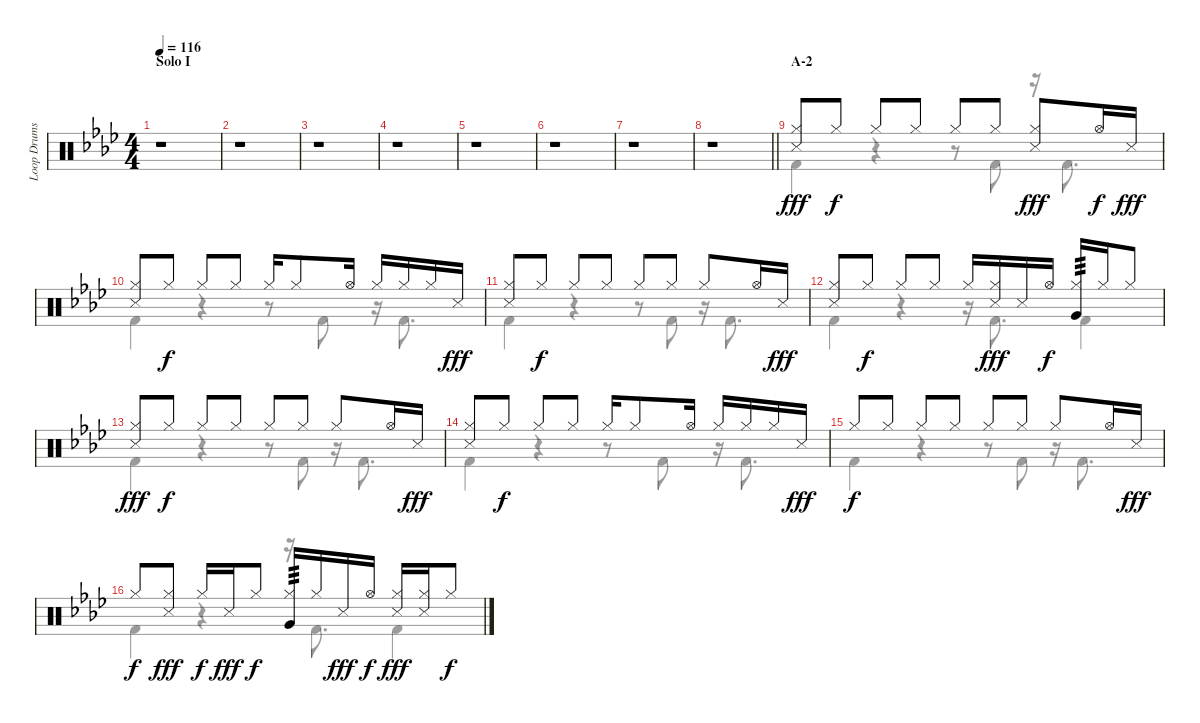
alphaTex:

\track ("Loop Drums I" "Loop Drums") {instrument percussion}
\staff {score}
\articulation defaults
\voice
\ts (4 4)
\section ("" "Solo I")
\tempo 116
\clef neutral
\ks ab
r.1{dy f} |
r.1 |
r.1 |
r.1 |
r.1 |
r.1 |
r.1 |
\barLineRight lightlight
r.1 |
\section ("" "A-2")
("Hi-Hat (closed)" "Snare (side stick) 3").8{dy fff} "Hi-Hat (closed)".8{dy f} "Hi-Hat (closed)".8 "Hi-Hat (closed)".8 "Hi-Hat (closed)".8 "Hi-Hat (closed)".8 ("Hi-Hat (closed)" "Snare (side stick) 3").8{dy fff} "Hi-Hat (open)".16{dy f} "Snare (side stick) 3".16{dy fff} |
("Hi-Hat (closed)" "Snare (side stick) 3").8 "Hi-Hat (closed)".8{dy f} "Hi-Hat (closed)".8 "Hi-Hat (closed)".8 "Hi-Hat (closed)".16 "Hi-Hat (closed)".8 "Hi-Hat (open)".16 "Hi-Hat (closed)".16 "Hi-Hat (closed)".16 "Hi-Hat (closed)".16 "Snare (side stick) 3".16{dy fff} |
("Hi-Hat (closed)" "Snare (side stick) 3").8 "Hi-Hat (closed)".8{dy f} "Hi-Hat (closed)".8 "Hi-Hat (closed)".8 "Hi-Hat (closed)".8 "Hi-Hat (closed)".8 "Hi-Hat (closed)".8 "Hi-Hat (open)".16 "Snare (side stick) 3".16{dy fff} |
("Hi-Hat (closed)" "Snare (side stick) 3").8 "Hi-Hat (closed)".8{dy f} "Hi-Hat (closed)".8 "Hi-Hat (closed)".8 "Hi-Hat (closed)".16 ("Hi-Hat (closed)" "Snare (side stick) 3").16{dy fff} "Snare (side stick) 3".16 "Hi-Hat (open)".16{dy f} ("Hi-Hat (closed)" "Very Low Tom (hit)").16{tp 3} "Hi-Hat (closed)".16 "Hi-Hat (closed)".8 |
("Hi-Hat (closed)" "Snare (side stick) 3").8{dy fff} "Hi-Hat (closed)".8{dy f} "Hi-Hat (closed)".8 "Hi-Hat (closed)".8 "Hi-Hat (closed)".8 "Hi-Hat (closed)".8 "Hi-Hat (closed)".8 "Hi-Hat (open)".16 "Snare (side stick) 3".16{dy fff} |
("Hi-Hat (closed)" "Snare (side stick) 3").8 "Hi-Hat (closed)".8{dy f} "Hi-Hat (closed)".8 "Hi-Hat (closed)".8 "Hi-Hat (closed)".16 "Hi-Hat (closed)".8 "Hi-Hat (open)".16 "Hi-Hat (closed)".16 "Hi-Hat (closed)".16 "Hi-Hat (closed)".16 "Snare (side stick) 3".16{dy fff} |
"Hi-Hat (closed)".8{dy f} "Hi-Hat (closed)".8 "Hi-Hat (closed)".8 "Hi-Hat (closed)".8 "Hi-Hat (closed)".8 "Hi-Hat (closed)".8 "Hi-Hat (closed)".8 "Hi-Hat (open)".16 "Snare (side stick) 3".16{dy fff} |
"Hi-Hat (closed)".8{dy f} ("Hi-Hat (closed)" "Snare (side stick) 3").8{dy fff} "Hi-Hat (closed)".16{dy f} "Snare (side stick) 3".16{dy fff} "Hi-Hat (closed)".8{dy f} ("Hi-Hat (closed)" "Very Low Tom (hit)").16{tp 3} "Hi-Hat (closed)".16 "Snare (side stick) 3".16{dy fff} "Hi-Hat (open)".16{dy f} ("Hi-Hat (closed)" "Snare (side stick) 3").16{dy fff} ("Hi-Hat (closed)" "Snare (side stick) 3").16 "Hi-Hat (closed)".8{dy f}
\voice
\clef neutral
\ottava regular
\simile none
\ks ab
r.1{dy fff} |
r.1 |
r.1 |
r.1 |
r.1 |
r.1 |
r.1 |
\barLineRight lightlight
r.1 |
"Kick (hit) 2".4 r.4 r.8 "Kick (hit) 2".8 r.16 "Kick (hit) 2".8{d} |
"Kick (hit) 2".4 r.4 r.8 "Kick (hit) 2".8 r.16 "Kick (hit) 2".8{d} |
"Kick (hit) 2".4 r.4 r.8 "Kick (hit) 2".8 r.16 "Kick (hit) 2".8{d} |
"Kick (hit) 2".4 r.4 r.16 "Kick (hit) 2".8{d} "Kick (hit) 2".4 |
"Kick (hit) 2".4 r.4 r.8 "Kick (hit) 2".8 r.16 "Kick (hit) 2".8{d} |
"Kick (hit) 2".4 r.4 r.8 "Kick (hit) 2".8 r.16 "Kick (hit) 2".8{d} |
"Kick (hit) 2".4 r.4 r.8 "Kick (hit) 2".8 r.16 "Kick (hit) 2".8{d} |
"Kick (hit) 2".4 r.4 r.16 "Kick (hit) 2".8{d} "Kick (hit) 2".4
